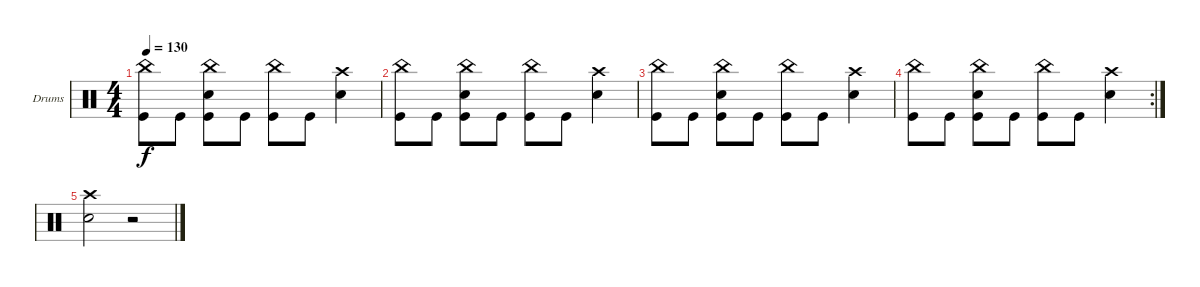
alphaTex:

\defaultSystemsLayout 4
\bracketExtendMode groupsimilarinstruments
\firstSystemTrackNameOrientation horizontal
\otherSystemsTrackNameOrientation horizontal
\track ("Drumkit" "Drums") {instrument percussion}
\staff {score}
\articulation defaults
\ts (4 4)
\tempo 130
\clef neutral
\scale
0.333333
\ks c
("China (hit)" "Kick (hit)").8{dy f} "Kick (hit)".8 ("China (hit)" "Snare (hit) 2" "Kick (hit)").8 "Kick (hit)".8 ("China (hit)" "Kick (hit)").8 "Kick (hit)".8 ("Crash high (hit)" "Snare (hit) 2").4 |
("China (hit)" "Kick (hit)").8 "Kick (hit)".8 ("China (hit)" "Snare (hit) 2" "Kick (hit)").8 "Kick (hit)".8 ("China (hit)" "Kick (hit)").8 "Kick (hit)".8 ("Crash high (hit)" "Snare (hit) 2").4 |
("China (hit)" "Kick (hit)").8 "Kick (hit)".8 ("China (hit)" "Snare (hit) 2" "Kick (hit)").8 "Kick (hit)".8 ("China (hit)" "Kick (hit)").8 "Kick (hit)".8 ("Crash high (hit)" "Snare (hit) 2").4 |
\rc 2
("China (hit)" "Kick (hit)").8 "Kick (hit)".8 ("China (hit)" "Snare (hit) 2" "Kick (hit)").8 "Kick (hit)".8 ("China (hit)" "Kick (hit)").8 "Kick (hit)".8 ("Crash high (hit)" "Snare (hit) 2").4 |
("Crash high (hit)" "Snare (hit) 2").2 r.2
